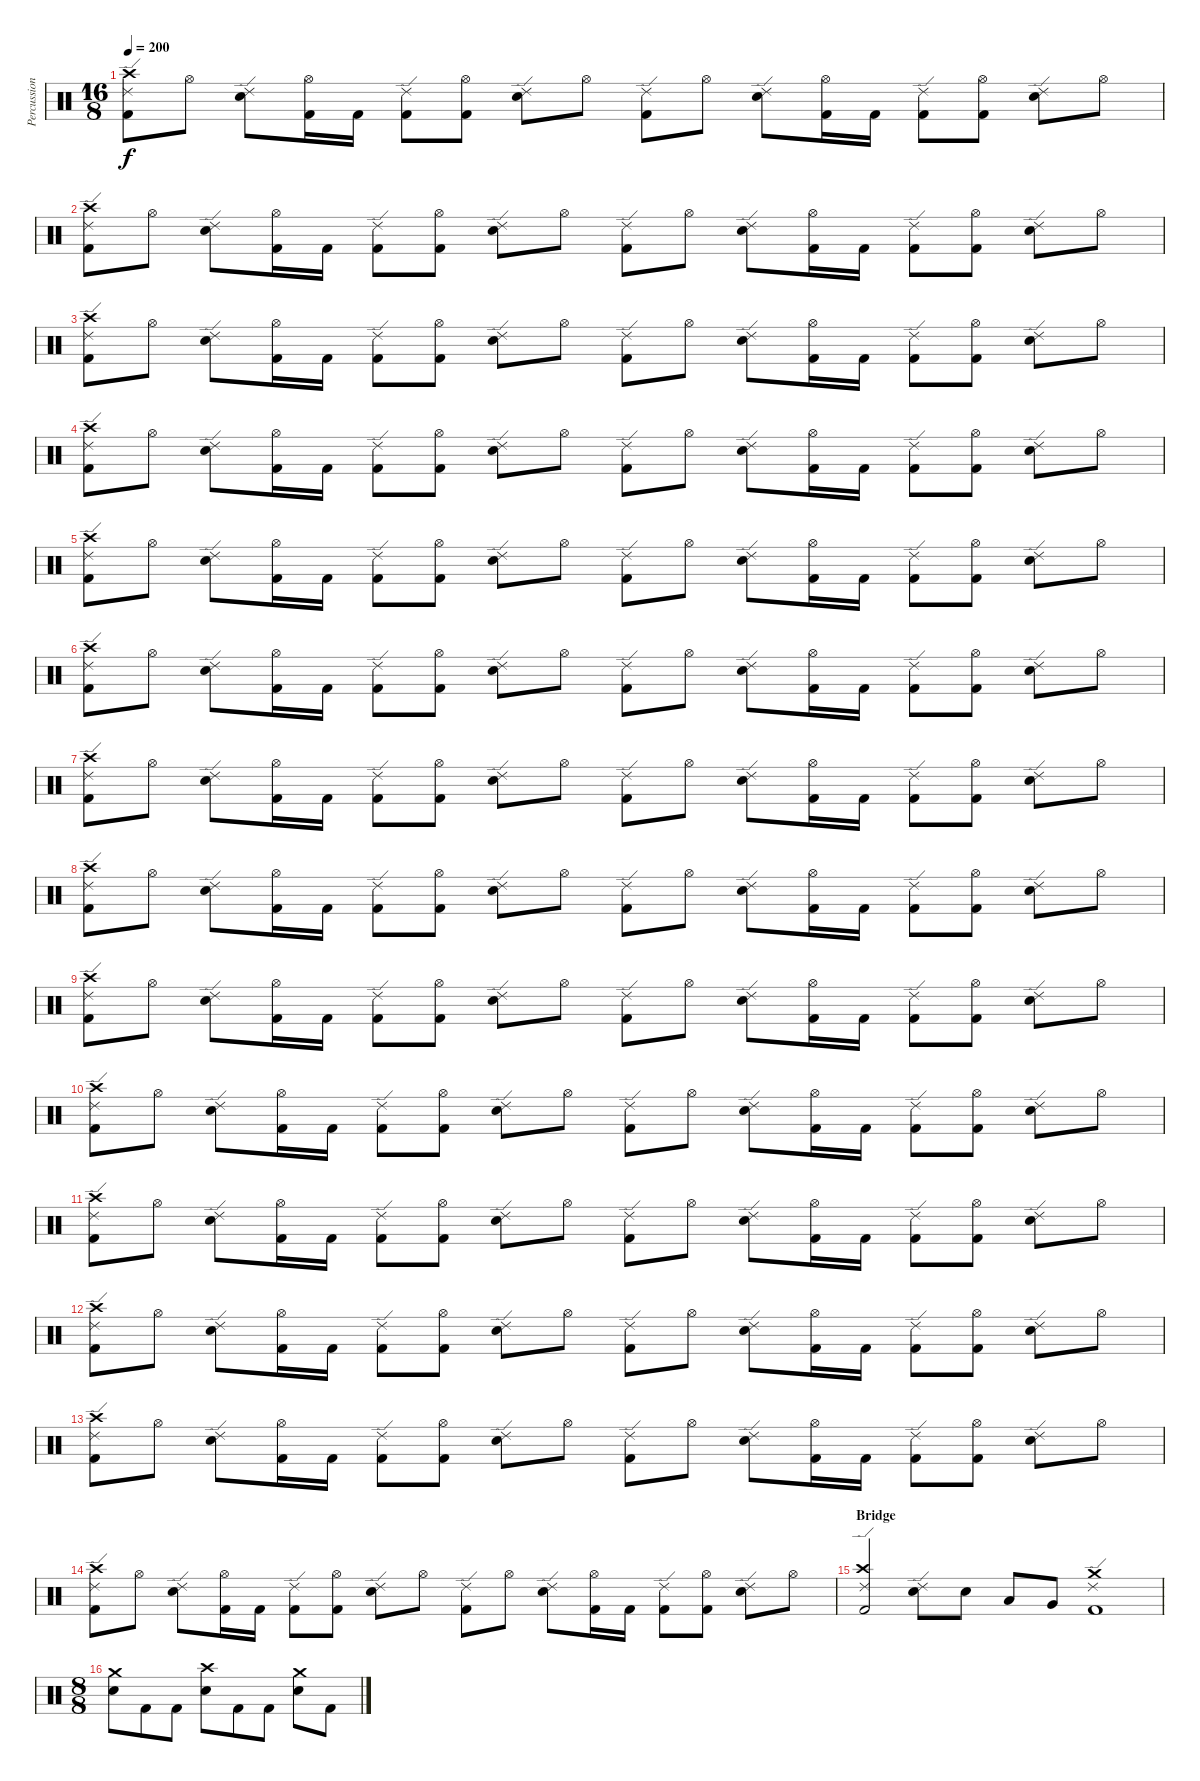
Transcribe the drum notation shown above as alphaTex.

\track ("Percussions" "Percussion") {instrument percussion}
\staff {score}
\articulation defaults
\ts (16 8)
\tempo 200
\clef neutral
\ks c
("Ride (edge) 2" "Crash high (hit)" "Kick (hit) 2").8{dy f} "Hi-Hat (open)".8 ("Ride (edge) 2" "Electric Snare (hit)").8 ("Hi-Hat (open)" "Kick (hit) 2").16 "Kick (hit) 2".16 ("Ride (edge) 2" "Kick (hit) 2").8 ("Hi-Hat (open)" "Kick (hit) 2").8 ("Ride (edge) 2" "Electric Snare (hit)").8 "Hi-Hat (open)".8 ("Ride (edge) 2" "Kick (hit) 2").8 "Hi-Hat (open)".8 ("Ride (edge) 2" "Electric Snare (hit)").8 ("Hi-Hat (open)" "Kick (hit) 2").16 "Kick (hit) 2".16 ("Ride (edge) 2" "Kick (hit) 2").8 ("Hi-Hat (open)" "Kick (hit) 2").8 ("Ride (edge) 2" "Electric Snare (hit)").8 "Hi-Hat (open)".8 |
("Ride (edge) 2" "Crash high (hit)" "Kick (hit) 2").8 "Hi-Hat (open)".8 ("Ride (edge) 2" "Electric Snare (hit)").8 ("Hi-Hat (open)" "Kick (hit) 2").16 "Kick (hit) 2".16 ("Ride (edge) 2" "Kick (hit) 2").8 ("Hi-Hat (open)" "Kick (hit) 2").8 ("Ride (edge) 2" "Electric Snare (hit)").8 "Hi-Hat (open)".8 ("Ride (edge) 2" "Kick (hit) 2").8 "Hi-Hat (open)".8 ("Ride (edge) 2" "Electric Snare (hit)").8 ("Hi-Hat (open)" "Kick (hit) 2").16 "Kick (hit) 2".16 ("Ride (edge) 2" "Kick (hit) 2").8 ("Hi-Hat (open)" "Kick (hit) 2").8 ("Ride (edge) 2" "Electric Snare (hit)").8 "Hi-Hat (open)".8 |
("Ride (edge) 2" "Crash high (hit)" "Kick (hit) 2").8 "Hi-Hat (open)".8 ("Ride (edge) 2" "Electric Snare (hit)").8 ("Hi-Hat (open)" "Kick (hit) 2").16 "Kick (hit) 2".16 ("Ride (edge) 2" "Kick (hit) 2").8 ("Hi-Hat (open)" "Kick (hit) 2").8 ("Ride (edge) 2" "Electric Snare (hit)").8 "Hi-Hat (open)".8 ("Ride (edge) 2" "Kick (hit) 2").8 "Hi-Hat (open)".8 ("Ride (edge) 2" "Electric Snare (hit)").8 ("Hi-Hat (open)" "Kick (hit) 2").16 "Kick (hit) 2".16 ("Ride (edge) 2" "Kick (hit) 2").8 ("Hi-Hat (open)" "Kick (hit) 2").8 ("Ride (edge) 2" "Electric Snare (hit)").8 "Hi-Hat (open)".8 |
("Ride (edge) 2" "Crash high (hit)" "Kick (hit) 2").8 "Hi-Hat (open)".8 ("Ride (edge) 2" "Electric Snare (hit)").8 ("Hi-Hat (open)" "Kick (hit) 2").16 "Kick (hit) 2".16 ("Ride (edge) 2" "Kick (hit) 2").8 ("Hi-Hat (open)" "Kick (hit) 2").8 ("Ride (edge) 2" "Electric Snare (hit)").8 "Hi-Hat (open)".8 ("Ride (edge) 2" "Kick (hit) 2").8 "Hi-Hat (open)".8 ("Ride (edge) 2" "Electric Snare (hit)").8 ("Hi-Hat (open)" "Kick (hit) 2").16 "Kick (hit) 2".16 ("Ride (edge) 2" "Kick (hit) 2").8 ("Hi-Hat (open)" "Kick (hit) 2").8 ("Ride (edge) 2" "Electric Snare (hit)").8 "Hi-Hat (open)".8 |
("Ride (edge) 2" "Crash high (hit)" "Kick (hit) 2").8 "Hi-Hat (open)".8 ("Ride (edge) 2" "Electric Snare (hit)").8 ("Hi-Hat (open)" "Kick (hit) 2").16 "Kick (hit) 2".16 ("Ride (edge) 2" "Kick (hit) 2").8 ("Hi-Hat (open)" "Kick (hit) 2").8 ("Ride (edge) 2" "Electric Snare (hit)").8 "Hi-Hat (open)".8 ("Ride (edge) 2" "Kick (hit) 2").8 "Hi-Hat (open)".8 ("Ride (edge) 2" "Electric Snare (hit)").8 ("Hi-Hat (open)" "Kick (hit) 2").16 "Kick (hit) 2".16 ("Ride (edge) 2" "Kick (hit) 2").8 ("Hi-Hat (open)" "Kick (hit) 2").8 ("Ride (edge) 2" "Electric Snare (hit)").8 "Hi-Hat (open)".8 |
("Ride (edge) 2" "Crash high (hit)" "Kick (hit) 2").8 "Hi-Hat (open)".8 ("Ride (edge) 2" "Electric Snare (hit)").8 ("Hi-Hat (open)" "Kick (hit) 2").16 "Kick (hit) 2".16 ("Ride (edge) 2" "Kick (hit) 2").8 ("Hi-Hat (open)" "Kick (hit) 2").8 ("Ride (edge) 2" "Electric Snare (hit)").8 "Hi-Hat (open)".8 ("Ride (edge) 2" "Kick (hit) 2").8 "Hi-Hat (open)".8 ("Ride (edge) 2" "Electric Snare (hit)").8 ("Hi-Hat (open)" "Kick (hit) 2").16 "Kick (hit) 2".16 ("Ride (edge) 2" "Kick (hit) 2").8 ("Hi-Hat (open)" "Kick (hit) 2").8 ("Ride (edge) 2" "Electric Snare (hit)").8 "Hi-Hat (open)".8 |
("Ride (edge) 2" "Crash high (hit)" "Kick (hit) 2").8 "Hi-Hat (open)".8 ("Ride (edge) 2" "Electric Snare (hit)").8 ("Hi-Hat (open)" "Kick (hit) 2").16 "Kick (hit) 2".16 ("Ride (edge) 2" "Kick (hit) 2").8 ("Hi-Hat (open)" "Kick (hit) 2").8 ("Ride (edge) 2" "Electric Snare (hit)").8 "Hi-Hat (open)".8 ("Ride (edge) 2" "Kick (hit) 2").8 "Hi-Hat (open)".8 ("Ride (edge) 2" "Electric Snare (hit)").8 ("Hi-Hat (open)" "Kick (hit) 2").16 "Kick (hit) 2".16 ("Ride (edge) 2" "Kick (hit) 2").8 ("Hi-Hat (open)" "Kick (hit) 2").8 ("Ride (edge) 2" "Electric Snare (hit)").8 "Hi-Hat (open)".8 |
("Ride (edge) 2" "Crash high (hit)" "Kick (hit) 2").8 "Hi-Hat (open)".8 ("Ride (edge) 2" "Electric Snare (hit)").8 ("Hi-Hat (open)" "Kick (hit) 2").16 "Kick (hit) 2".16 ("Ride (edge) 2" "Kick (hit) 2").8 ("Hi-Hat (open)" "Kick (hit) 2").8 ("Ride (edge) 2" "Electric Snare (hit)").8 "Hi-Hat (open)".8 ("Ride (edge) 2" "Kick (hit) 2").8 "Hi-Hat (open)".8 ("Ride (edge) 2" "Electric Snare (hit)").8 ("Hi-Hat (open)" "Kick (hit) 2").16 "Kick (hit) 2".16 ("Ride (edge) 2" "Kick (hit) 2").8 ("Hi-Hat (open)" "Kick (hit) 2").8 ("Ride (edge) 2" "Electric Snare (hit)").8 "Hi-Hat (open)".8 |
("Ride (edge) 2" "Crash high (hit)" "Kick (hit) 2").8 "Hi-Hat (open)".8 ("Ride (edge) 2" "Electric Snare (hit)").8 ("Hi-Hat (open)" "Kick (hit) 2").16 "Kick (hit) 2".16 ("Ride (edge) 2" "Kick (hit) 2").8 ("Hi-Hat (open)" "Kick (hit) 2").8 ("Ride (edge) 2" "Electric Snare (hit)").8 "Hi-Hat (open)".8 ("Ride (edge) 2" "Kick (hit) 2").8 "Hi-Hat (open)".8 ("Ride (edge) 2" "Electric Snare (hit)").8 ("Hi-Hat (open)" "Kick (hit) 2").16 "Kick (hit) 2".16 ("Ride (edge) 2" "Kick (hit) 2").8 ("Hi-Hat (open)" "Kick (hit) 2").8 ("Ride (edge) 2" "Electric Snare (hit)").8 "Hi-Hat (open)".8 |
("Ride (edge) 2" "Crash high (hit)" "Kick (hit) 2").8 "Hi-Hat (open)".8 ("Ride (edge) 2" "Electric Snare (hit)").8 ("Hi-Hat (open)" "Kick (hit) 2").16 "Kick (hit) 2".16 ("Ride (edge) 2" "Kick (hit) 2").8 ("Hi-Hat (open)" "Kick (hit) 2").8 ("Ride (edge) 2" "Electric Snare (hit)").8 "Hi-Hat (open)".8 ("Ride (edge) 2" "Kick (hit) 2").8 "Hi-Hat (open)".8 ("Ride (edge) 2" "Electric Snare (hit)").8 ("Hi-Hat (open)" "Kick (hit) 2").16 "Kick (hit) 2".16 ("Ride (edge) 2" "Kick (hit) 2").8 ("Hi-Hat (open)" "Kick (hit) 2").8 ("Ride (edge) 2" "Electric Snare (hit)").8 "Hi-Hat (open)".8 |
("Ride (edge) 2" "Crash high (hit)" "Kick (hit) 2").8 "Hi-Hat (open)".8 ("Ride (edge) 2" "Electric Snare (hit)").8 ("Hi-Hat (open)" "Kick (hit) 2").16 "Kick (hit) 2".16 ("Ride (edge) 2" "Kick (hit) 2").8 ("Hi-Hat (open)" "Kick (hit) 2").8 ("Ride (edge) 2" "Electric Snare (hit)").8 "Hi-Hat (open)".8 ("Ride (edge) 2" "Kick (hit) 2").8 "Hi-Hat (open)".8 ("Ride (edge) 2" "Electric Snare (hit)").8 ("Hi-Hat (open)" "Kick (hit) 2").16 "Kick (hit) 2".16 ("Ride (edge) 2" "Kick (hit) 2").8 ("Hi-Hat (open)" "Kick (hit) 2").8 ("Ride (edge) 2" "Electric Snare (hit)").8 "Hi-Hat (open)".8 |
("Ride (edge) 2" "Crash high (hit)" "Kick (hit) 2").8 "Hi-Hat (open)".8 ("Ride (edge) 2" "Electric Snare (hit)").8 ("Hi-Hat (open)" "Kick (hit) 2").16 "Kick (hit) 2".16 ("Ride (edge) 2" "Kick (hit) 2").8 ("Hi-Hat (open)" "Kick (hit) 2").8 ("Ride (edge) 2" "Electric Snare (hit)").8 "Hi-Hat (open)".8 ("Ride (edge) 2" "Kick (hit) 2").8 "Hi-Hat (open)".8 ("Ride (edge) 2" "Electric Snare (hit)").8 ("Hi-Hat (open)" "Kick (hit) 2").16 "Kick (hit) 2".16 ("Ride (edge) 2" "Kick (hit) 2").8 ("Hi-Hat (open)" "Kick (hit) 2").8 ("Ride (edge) 2" "Electric Snare (hit)").8 "Hi-Hat (open)".8 |
("Ride (edge) 2" "Crash high (hit)" "Kick (hit) 2").8 "Hi-Hat (open)".8 ("Ride (edge) 2" "Electric Snare (hit)").8 ("Hi-Hat (open)" "Kick (hit) 2").16 "Kick (hit) 2".16 ("Ride (edge) 2" "Kick (hit) 2").8 ("Hi-Hat (open)" "Kick (hit) 2").8 ("Ride (edge) 2" "Electric Snare (hit)").8 "Hi-Hat (open)".8 ("Ride (edge) 2" "Kick (hit) 2").8 "Hi-Hat (open)".8 ("Ride (edge) 2" "Electric Snare (hit)").8 ("Hi-Hat (open)" "Kick (hit) 2").16 "Kick (hit) 2".16 ("Ride (edge) 2" "Kick (hit) 2").8 ("Hi-Hat (open)" "Kick (hit) 2").8 ("Ride (edge) 2" "Electric Snare (hit)").8 "Hi-Hat (open)".8 |
("Ride (edge) 2" "Crash high (hit)" "Kick (hit) 2").8 "Hi-Hat (open)".8 ("Ride (edge) 2" "Electric Snare (hit)").8 ("Hi-Hat (open)" "Kick (hit) 2").16 "Kick (hit) 2".16 ("Ride (edge) 2" "Kick (hit) 2").8 ("Hi-Hat (open)" "Kick (hit) 2").8 ("Ride (edge) 2" "Electric Snare (hit)").8 "Hi-Hat (open)".8 ("Ride (edge) 2" "Kick (hit) 2").8 "Hi-Hat (open)".8 ("Ride (edge) 2" "Electric Snare (hit)").8 ("Hi-Hat (open)" "Kick (hit) 2").16 "Kick (hit) 2".16 ("Ride (edge) 2" "Kick (hit) 2").8 ("Hi-Hat (open)" "Kick (hit) 2").8 ("Ride (edge) 2" "Electric Snare (hit)").8 "Hi-Hat (open)".8 |
\section ("" "Bridge")
("Crash high (hit)" "Ride (edge) 2" "Kick (hit) 2").2 ("Ride (edge) 2" "Electric Snare (hit)").8 "Electric Snare (hit)".8 "Low Tom (hit)".8 "Very Low Tom (hit)".8 ("Crash medium (hit)" "Ride (edge) 2" "Kick (hit) 2").1 |
\ts (8 8)
("Crash medium (hit)" "Electric Snare (hit)").8 "Kick (hit) 2".8 "Kick (hit) 2".8 ("Crash high (hit)" "Electric Snare (hit)").8 "Kick (hit) 2".8 "Kick (hit) 2".8 ("Crash medium (hit)" "Electric Snare (hit)").8 "Kick (hit) 2".8
